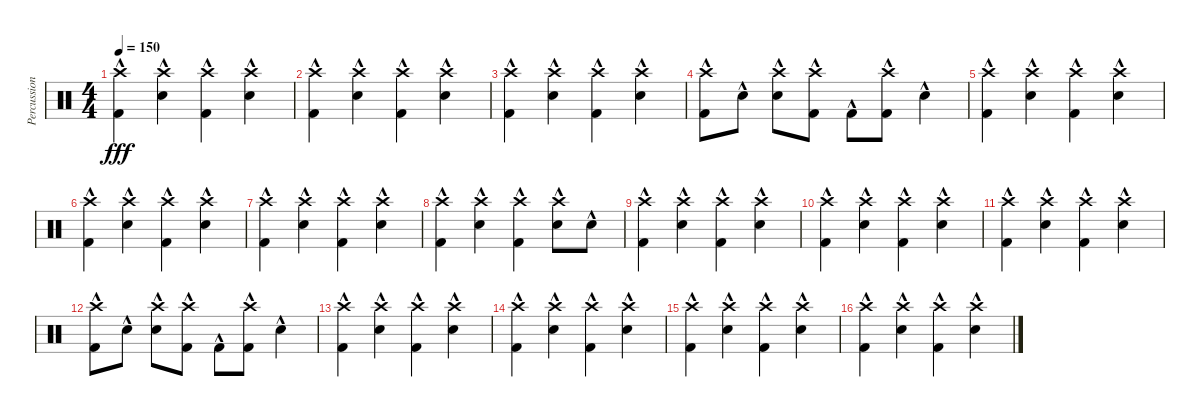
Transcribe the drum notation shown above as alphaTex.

\track ("Percussion" "Percussion") {instrument percussion}
\staff {score}
\articulation defaults
\ts (4 4)
\tempo 150
\clef neutral
\ks c
("Crash high (hit)"{hac} "Kick (hit) 2"{hac}).4{dy fff} ("Crash high (hit)"{hac} "Snare (hit) 2"{hac}).4 ("Crash high (hit)"{hac} "Kick (hit) 2"{hac}).4 ("Crash high (hit)"{hac} "Snare (hit) 2"{hac}).4 |
("Crash high (hit)"{hac} "Kick (hit) 2"{hac}).4 ("Crash high (hit)"{hac} "Snare (hit) 2"{hac}).4 ("Crash high (hit)"{hac} "Kick (hit) 2"{hac}).4 ("Crash high (hit)"{hac} "Snare (hit) 2"{hac}).4 |
("Crash high (hit)"{hac} "Kick (hit) 2"{hac}).4 ("Crash high (hit)"{hac} "Snare (hit) 2"{hac}).4 ("Crash high (hit)"{hac} "Kick (hit) 2"{hac}).4 ("Crash high (hit)"{hac} "Snare (hit) 2"{hac}).4 |
("Crash high (hit)"{hac} "Kick (hit) 2"{hac}).8 "Snare (hit) 2"{hac}.8 ("Crash high (hit)"{hac} "Snare (hit) 2"{hac}).8 ("Crash high (hit)"{hac} "Kick (hit) 2"{hac}).8 "Kick (hit) 2"{hac}.8 ("Crash high (hit)"{hac} "Kick (hit) 2").8 "Snare (hit) 2"{hac}.4 |
("Crash high (hit)"{hac} "Kick (hit) 2"{hac}).4 ("Crash high (hit)"{hac} "Snare (hit) 2"{hac}).4 ("Crash high (hit)"{hac} "Kick (hit) 2"{hac}).4 ("Crash high (hit)"{hac} "Snare (hit) 2"{hac}).4 |
("Crash high (hit)"{hac} "Kick (hit) 2"{hac}).4 ("Crash high (hit)"{hac} "Snare (hit) 2"{hac}).4 ("Crash high (hit)"{hac} "Kick (hit) 2"{hac}).4 ("Crash high (hit)"{hac} "Snare (hit) 2"{hac}).4 |
("Crash high (hit)"{hac} "Kick (hit) 2"{hac}).4 ("Crash high (hit)"{hac} "Snare (hit) 2"{hac}).4 ("Crash high (hit)"{hac} "Kick (hit) 2"{hac}).4 ("Crash high (hit)"{hac} "Snare (hit) 2"{hac}).4 |
("Crash high (hit)"{hac} "Kick (hit) 2"{hac}).4 ("Crash high (hit)"{hac} "Snare (hit) 2"{hac}).4 ("Crash high (hit)"{hac} "Kick (hit) 2"{hac}).4 ("Crash high (hit)"{hac} "Snare (hit) 2"{hac}).8 "Snare (hit) 2"{hac}.8 |
("Crash high (hit)"{hac} "Kick (hit) 2"{hac}).4 ("Crash high (hit)"{hac} "Snare (hit) 2"{hac}).4 ("Crash high (hit)"{hac} "Kick (hit) 2"{hac}).4 ("Crash high (hit)"{hac} "Snare (hit) 2"{hac}).4 |
("Crash high (hit)"{hac} "Kick (hit) 2"{hac}).4 ("Crash high (hit)"{hac} "Snare (hit) 2"{hac}).4 ("Crash high (hit)"{hac} "Kick (hit) 2"{hac}).4 ("Crash high (hit)"{hac} "Snare (hit) 2"{hac}).4 |
("Crash high (hit)"{hac} "Kick (hit) 2"{hac}).4 ("Crash high (hit)"{hac} "Snare (hit) 2"{hac}).4 ("Crash high (hit)"{hac} "Kick (hit) 2"{hac}).4 ("Crash high (hit)"{hac} "Snare (hit) 2"{hac}).4 |
("Crash high (hit)"{hac} "Kick (hit) 2"{hac}).8 "Snare (hit) 2"{hac}.8 ("Crash high (hit)"{hac} "Snare (hit) 2"{hac}).8 ("Crash high (hit)"{hac} "Kick (hit) 2"{hac}).8 "Kick (hit) 2"{hac}.8 ("Crash high (hit)"{hac} "Kick (hit) 2").8 "Snare (hit) 2"{hac}.4 |
("Crash high (hit)"{hac} "Kick (hit) 2"{hac}).4 ("Crash high (hit)"{hac} "Snare (hit) 2"{hac}).4 ("Crash high (hit)"{hac} "Kick (hit) 2"{hac}).4 ("Crash high (hit)"{hac} "Snare (hit) 2"{hac}).4 |
("Crash high (hit)"{hac} "Kick (hit) 2"{hac}).4 ("Crash high (hit)"{hac} "Snare (hit) 2"{hac}).4 ("Crash high (hit)"{hac} "Kick (hit) 2"{hac}).4 ("Crash high (hit)"{hac} "Snare (hit) 2"{hac}).4 |
("Crash high (hit)"{hac} "Kick (hit) 2"{hac}).4 ("Crash high (hit)"{hac} "Snare (hit) 2"{hac}).4 ("Crash high (hit)"{hac} "Kick (hit) 2"{hac}).4 ("Crash high (hit)"{hac} "Snare (hit) 2"{hac}).4 |
("Crash high (hit)"{hac} "Kick (hit) 2"{hac}).4 ("Crash high (hit)"{hac} "Snare (hit) 2"{hac}).4 ("Crash high (hit)"{hac} "Kick (hit) 2"{hac}).4 ("Crash high (hit)"{hac} "Snare (hit) 2"{hac}).4
